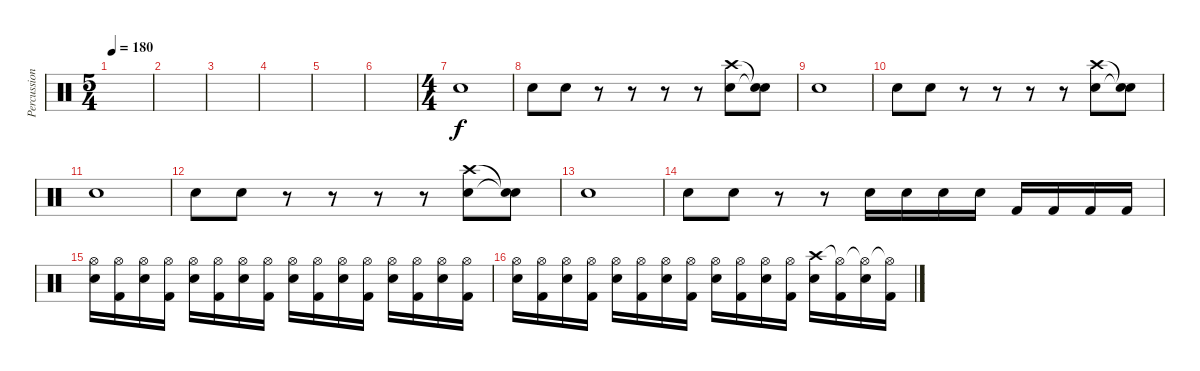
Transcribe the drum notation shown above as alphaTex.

\track ("Percussion" "Percussion") {instrument percussion}
\staff {score}
\articulation defaults
\ts (5 4)
\tempo 180
\clef neutral
\ks c
|
|
|
|
|
|
\ts (4 4)
"Snare (hit) 2".1 |
"Snare (hit) 2".8 "Snare (hit) 2".8 r.8 r.8 r.8 r.8 ("Snare (hit) 2" "Crash high (hit)").8 ("Snare (hit)"{t} "Snare (hit)"{t}).8 |
"Snare (hit) 2".1 |
"Snare (hit) 2".8 "Snare (hit) 2".8 r.8 r.8 r.8 r.8 ("Snare (hit) 2" "Crash high (hit)").8 ("Snare (hit)"{t} "Snare (hit)"{t}).8 |
"Snare (hit) 2".1 |
"Snare (hit) 2".8 "Snare (hit) 2".8 r.8 r.8 r.8 r.8 ("Snare (hit) 2" "Crash high (hit)").8 ("Snare (hit)"{t} "Snare (hit)"{t}).8 |
"Snare (hit) 2".1 |
"Snare (hit) 2".8 "Snare (hit) 2".8 r.8 r.8 "Snare (hit) 2".16 "Snare (hit) 2".16 "Snare (hit) 2".16 "Snare (hit) 2".16 "Kick (hit) 2".16 "Kick (hit) 2".16 "Kick (hit) 2".16 "Kick (hit) 2".16 |
("Hi-Hat (open)" "Snare (hit) 2").16 ("Hi-Hat (open)" "Kick (hit) 2").16 ("Hi-Hat (open)" "Snare (hit) 2").16 ("Hi-Hat (open)" "Kick (hit) 2").16 ("Hi-Hat (open)" "Snare (hit) 2").16 ("Hi-Hat (open)" "Kick (hit) 2").16 ("Hi-Hat (open)" "Snare (hit) 2").16 ("Hi-Hat (open)" "Kick (hit) 2").16 ("Hi-Hat (open)" "Snare (hit) 2").16 ("Hi-Hat (open)" "Kick (hit) 2").16 ("Hi-Hat (open)" "Snare (hit) 2").16 ("Hi-Hat (open)" "Kick (hit) 2").16 ("Hi-Hat (open)" "Snare (hit) 2").16 ("Hi-Hat (open)" "Kick (hit) 2").16 ("Hi-Hat (open)" "Snare (hit) 2").16 ("Hi-Hat (open)" "Kick (hit) 2").16 |
("Hi-Hat (open)" "Snare (hit) 2").16 ("Hi-Hat (open)" "Kick (hit) 2").16 ("Hi-Hat (open)" "Snare (hit) 2").16 ("Hi-Hat (open)" "Kick (hit) 2").16 ("Hi-Hat (open)" "Snare (hit) 2").16 ("Hi-Hat (open)" "Kick (hit) 2").16 ("Hi-Hat (open)" "Snare (hit) 2").16 ("Hi-Hat (open)" "Kick (hit) 2").16 ("Hi-Hat (open)" "Snare (hit) 2").16 ("Hi-Hat (open)" "Kick (hit) 2").16 ("Hi-Hat (open)" "Snare (hit) 2").16 ("Hi-Hat (open)" "Kick (hit) 2").16 ("Crash high (hit)" "Snare (hit) 2").16 ("Hi-Hat (open)"{t} "Kick (hit) 2").16 ("Hi-Hat (open)"{t} "Snare (hit) 2").16 ("Hi-Hat (open)"{t} "Kick (hit) 2").16
